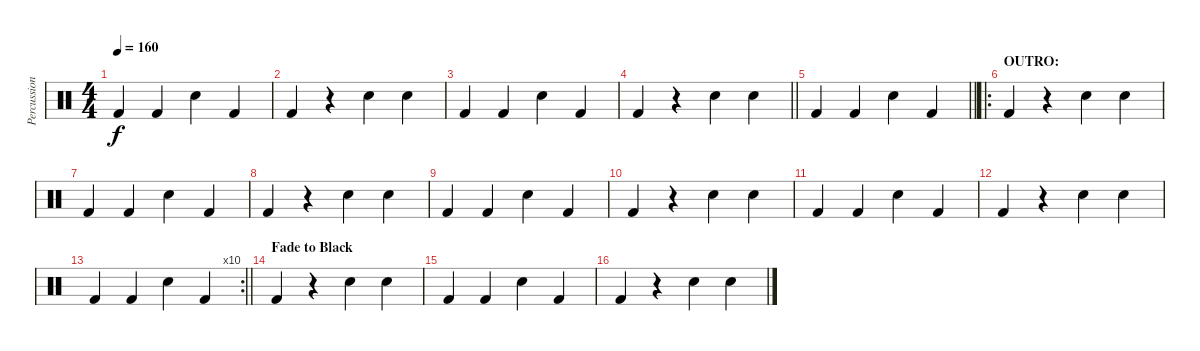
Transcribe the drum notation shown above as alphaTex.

\track ("Percussion" "Percussion") {instrument percussion}
\staff {score}
\articulation defaults
\ts (4 4)
\tempo 160
\clef neutral
\ks c "Kick (hit) 2".4{dy f} "Kick (hit) 2".4 "Electric Snare (hit)".4 "Kick (hit) 2".4
|
"Kick (hit) 2".4 r.4 "Electric Snare (hit)".4 "Electric Snare (hit)".4 |
"Kick (hit) 2".4 "Kick (hit) 2".4 "Electric Snare (hit)".4 "Kick (hit) 2".4 |
\barLineRight lightlight "Kick (hit) 2".4
r.4 "Electric Snare (hit)".4 "Electric Snare (hit)".4 |
\section ("" "")
\barLineRight lightlight "Kick (hit) 2".4 "Kick (hit) 2".4 "Electric Snare (hit)".4 "Kick (hit) 2".4
|
\ro
\section ("" "OUTRO:")
"Kick (hit) 2".4 r.4 "Electric Snare (hit)".4 "Electric Snare (hit)".4 |
"Kick (hit) 2".4 "Kick (hit) 2".4 "Electric Snare (hit)".4 "Kick (hit) 2".4 |
"Kick (hit) 2".4 r.4 "Electric Snare (hit)".4 "Electric Snare (hit)".4 |
"Kick (hit) 2".4 "Kick (hit) 2".4 "Electric Snare (hit)".4 "Kick (hit) 2".4 |
"Kick (hit) 2".4 r.4 "Electric Snare (hit)".4 "Electric Snare (hit)".4 |
"Kick (hit) 2".4 "Kick (hit) 2".4 "Electric Snare (hit)".4 "Kick (hit) 2".4 |
"Kick (hit) 2".4 r.4 "Electric Snare (hit)".4 "Electric Snare (hit)".4 |
\rc 10
\barLineRight lightlight "Kick (hit) 2".4 "Kick (hit) 2".4 "Electric Snare (hit)".4 "Kick (hit) 2".4
|
\section ("" "Fade to Black")
"Kick (hit) 2".4 r.4 "Electric Snare (hit)".4 "Electric Snare (hit)".4 |
"Kick (hit) 2".4 "Kick (hit) 2".4 "Electric Snare (hit)".4 "Kick (hit) 2".4 |
"Kick (hit) 2".4 r.4 "Electric Snare (hit)".4 "Electric Snare (hit)".4
